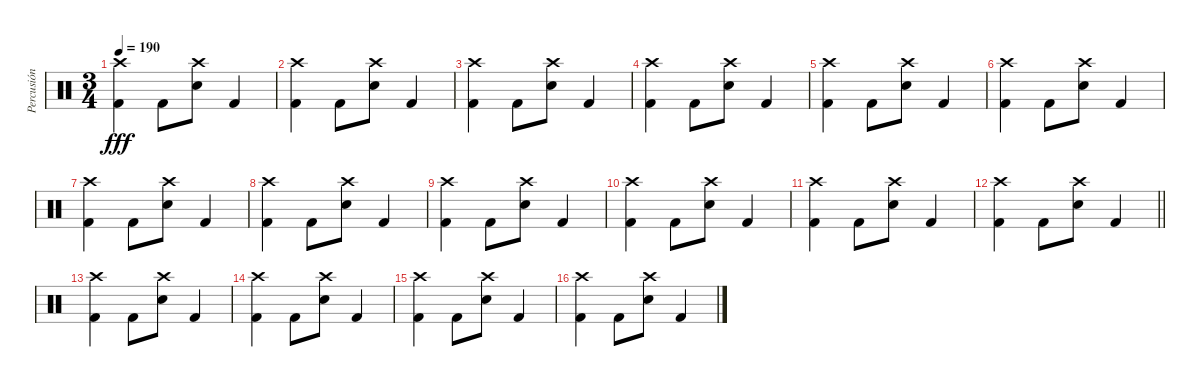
\track ("Percusión" "Percusión") {instrument percussion}
\staff {score}
\articulation defaults
\ts (3 4)
\tempo 190
\clef neutral
\ks c
("Crash high (hit)" "Kick (hit) 2").4{dy fff} "Kick (hit) 2".8 ("Crash high (hit)" "Electric Snare (hit)").8 "Kick (hit) 2".4 |
("Crash high (hit)" "Kick (hit) 2").4 "Kick (hit) 2".8 ("Crash high (hit)" "Electric Snare (hit)").8 "Kick (hit) 2".4 |
("Crash high (hit)" "Kick (hit) 2").4 "Kick (hit) 2".8 ("Crash high (hit)" "Electric Snare (hit)").8 "Kick (hit) 2".4 |
("Crash high (hit)" "Kick (hit) 2").4 "Kick (hit) 2".8 ("Crash high (hit)" "Electric Snare (hit)").8 "Kick (hit) 2".4 |
("Crash high (hit)" "Kick (hit) 2").4 "Kick (hit) 2".8 ("Crash high (hit)" "Electric Snare (hit)").8 "Kick (hit) 2".4 |
("Crash high (hit)" "Kick (hit) 2").4 "Kick (hit) 2".8 ("Crash high (hit)" "Electric Snare (hit)").8 "Kick (hit) 2".4 |
("Crash high (hit)" "Kick (hit) 2").4 "Kick (hit) 2".8 ("Crash high (hit)" "Electric Snare (hit)").8 "Kick (hit) 2".4 |
("Crash high (hit)" "Kick (hit) 2").4 "Kick (hit) 2".8 ("Crash high (hit)" "Electric Snare (hit)").8 "Kick (hit) 2".4 |
("Crash high (hit)" "Kick (hit) 2").4 "Kick (hit) 2".8 ("Crash high (hit)" "Electric Snare (hit)").8 "Kick (hit) 2".4 |
("Crash high (hit)" "Kick (hit) 2").4 "Kick (hit) 2".8 ("Crash high (hit)" "Electric Snare (hit)").8 "Kick (hit) 2".4 |
("Crash high (hit)" "Kick (hit) 2").4 "Kick (hit) 2".8 ("Crash high (hit)" "Electric Snare (hit)").8 "Kick (hit) 2".4 |
\barLineRight lightlight
("Crash high (hit)" "Kick (hit) 2").4 "Kick (hit) 2".8 ("Crash high (hit)" "Electric Snare (hit)").8 "Kick (hit) 2".4 |
("Crash high (hit)" "Kick (hit) 2").4 "Kick (hit) 2".8 ("Crash high (hit)" "Electric Snare (hit)").8 "Kick (hit) 2".4 |
("Crash high (hit)" "Kick (hit) 2").4 "Kick (hit) 2".8 ("Crash high (hit)" "Electric Snare (hit)").8 "Kick (hit) 2".4 |
("Crash high (hit)" "Kick (hit) 2").4 "Kick (hit) 2".8 ("Crash high (hit)" "Electric Snare (hit)").8 "Kick (hit) 2".4 |
("Crash high (hit)" "Kick (hit) 2").4 "Kick (hit) 2".8 ("Crash high (hit)" "Electric Snare (hit)").8 "Kick (hit) 2".4
